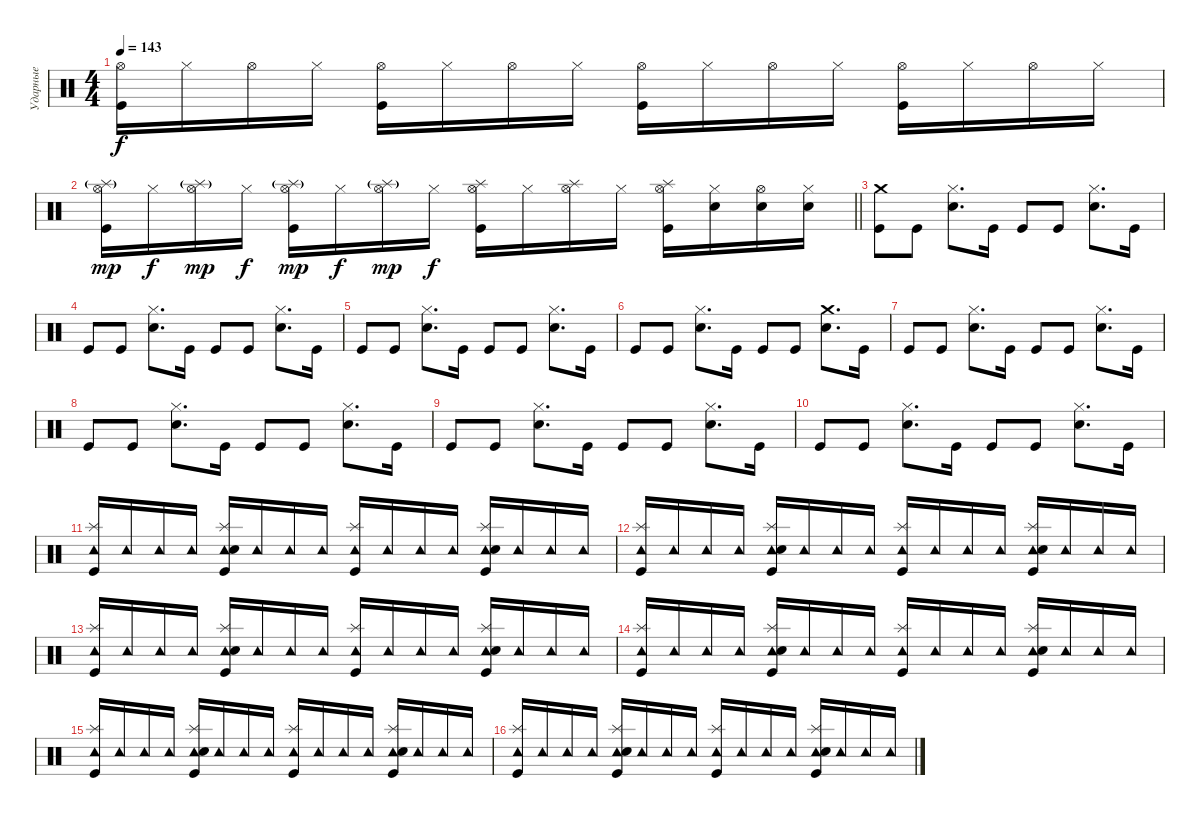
\track ("Ударные" "Ударные") {instrument percussion}
\staff {score}
\articulation defaults
\ts (4 4)
\tempo 143
\clef neutral
\ks c
("Hi-Hat (open)" "Kick (hit)").16{dy f} "Hi-Hat (closed)".16 "Hi-Hat (open)".16 "Hi-Hat (closed)".16 ("Hi-Hat (open)" "Kick (hit)").16 "Hi-Hat (closed)".16 "Hi-Hat (open)".16 "Hi-Hat (closed)".16 ("Hi-Hat (open)" "Kick (hit)").16 "Hi-Hat (closed)".16 "Hi-Hat (open)".16 "Hi-Hat (closed)".16 ("Hi-Hat (open)" "Kick (hit)").16 "Hi-Hat (closed)".16 "Hi-Hat (open)".16 "Hi-Hat (closed)".16 |
\barLineRight lightlight
("Hi-Hat (open)" "Splash (hit)"{g} "Kick (hit)").16{dy mp} "Hi-Hat (closed)".16{dy f} ("Hi-Hat (open)" "Splash (hit)"{g}).16{dy mp} "Hi-Hat (closed)".16{dy f} ("Hi-Hat (open)" "Splash (hit)"{g} "Kick (hit)").16{dy mp} "Hi-Hat (closed)".16{dy f} ("Hi-Hat (open)" "Splash (hit)"{g}).16{dy mp} "Hi-Hat (closed)".16{dy f} ("Hi-Hat (open)" "Splash (hit)" "Kick (hit)").16 "Hi-Hat (closed)".16 ("Hi-Hat (open)" "Splash (hit)").16 "Hi-Hat (closed)".16 ("Hi-Hat (open)" "Splash (hit)" "Kick (hit)").16 ("Hi-Hat (closed)" "Snare (hit) 2").16 ("Hi-Hat (open)" "Snare (hit) 2").16 ("Hi-Hat (closed)" "Snare (hit) 2").16 |
("Crash medium (hit)" "Kick (hit)").8 "Kick (hit)".8 ("Hi-Hat (closed)" "Electric Snare (hit)").8{d} "Kick (hit)".16 "Kick (hit)".8 "Kick (hit)".8 ("Hi-Hat (closed)" "Electric Snare (hit)").8{d} "Kick (hit)".16 |
"Kick (hit)".8 "Kick (hit)".8 ("Hi-Hat (closed)" "Electric Snare (hit)").8{d} "Kick (hit)".16 "Kick (hit)".8 "Kick (hit)".8 ("Hi-Hat (closed)" "Electric Snare (hit)").8{d} "Kick (hit)".16 |
"Kick (hit)".8 "Kick (hit)".8 ("Hi-Hat (closed)" "Electric Snare (hit)").8{d} "Kick (hit)".16 "Kick (hit)".8 "Kick (hit)".8 ("Hi-Hat (closed)" "Electric Snare (hit)").8{d} "Kick (hit)".16 |
"Kick (hit)".8 "Kick (hit)".8 ("Hi-Hat (closed)" "Electric Snare (hit)").8{d} "Kick (hit)".16 "Kick (hit)".8 "Kick (hit)".8 ("Crash medium (hit)" "Electric Snare (hit)").8{d} "Kick (hit)".16 |
"Kick (hit)".8 "Kick (hit)".8 ("Hi-Hat (closed)" "Electric Snare (hit)").8{d} "Kick (hit)".16 "Kick (hit)".8 "Kick (hit)".8 ("Hi-Hat (closed)" "Electric Snare (hit)").8{d} "Kick (hit)".16 |
"Kick (hit)".8 "Kick (hit)".8 ("Hi-Hat (closed)" "Electric Snare (hit)").8{d} "Kick (hit)".16 "Kick (hit)".8 "Kick (hit)".8 ("Hi-Hat (closed)" "Electric Snare (hit)").8{d} "Kick (hit)".16 |
"Kick (hit)".8 "Kick (hit)".8 ("Hi-Hat (closed)" "Electric Snare (hit)").8{d} "Kick (hit)".16 "Kick (hit)".8 "Kick (hit)".8 ("Hi-Hat (closed)" "Electric Snare (hit)").8{d} "Kick (hit)".16 |
"Kick (hit)".8 "Kick (hit)".8 ("Hi-Hat (closed)" "Electric Snare (hit)").8{d} "Kick (hit)".16 "Kick (hit)".8 "Kick (hit)".8 ("Hi-Hat (closed)" "Electric Snare (hit)").8{d} "Kick (hit)".16 |
("Tambourine (hit)" "Splash (hit)" "Kick (hit)").16 "Tambourine (hit)".16 "Tambourine (hit)".16 "Tambourine (hit)".16 ("Tambourine (hit)" "Splash (hit)" "Electric Snare (hit)" "Kick (hit)").16 "Tambourine (hit)".16 "Tambourine (hit)".16 "Tambourine (hit)".16 ("Tambourine (hit)" "Splash (hit)" "Kick (hit)").16 "Tambourine (hit)".16 "Tambourine (hit)".16 "Tambourine (hit)".16 ("Tambourine (hit)" "Splash (hit)" "Electric Snare (hit)" "Kick (hit)").16 "Tambourine (hit)".16 "Tambourine (hit)".16 "Tambourine (hit)".16 |
("Tambourine (hit)" "Splash (hit)" "Kick (hit)").16 "Tambourine (hit)".16 "Tambourine (hit)".16 "Tambourine (hit)".16 ("Tambourine (hit)" "Splash (hit)" "Electric Snare (hit)" "Kick (hit)").16 "Tambourine (hit)".16 "Tambourine (hit)".16 "Tambourine (hit)".16 ("Tambourine (hit)" "Splash (hit)" "Kick (hit)").16 "Tambourine (hit)".16 "Tambourine (hit)".16 "Tambourine (hit)".16 ("Tambourine (hit)" "Splash (hit)" "Electric Snare (hit)" "Kick (hit)").16 "Tambourine (hit)".16 "Tambourine (hit)".16 "Tambourine (hit)".16 |
("Tambourine (hit)" "Splash (hit)" "Kick (hit)").16 "Tambourine (hit)".16 "Tambourine (hit)".16 "Tambourine (hit)".16 ("Tambourine (hit)" "Splash (hit)" "Electric Snare (hit)" "Kick (hit)").16 "Tambourine (hit)".16 "Tambourine (hit)".16 "Tambourine (hit)".16 ("Tambourine (hit)" "Splash (hit)" "Kick (hit)").16 "Tambourine (hit)".16 "Tambourine (hit)".16 "Tambourine (hit)".16 ("Tambourine (hit)" "Splash (hit)" "Electric Snare (hit)" "Kick (hit)").16 "Tambourine (hit)".16 "Tambourine (hit)".16 "Tambourine (hit)".16 |
("Tambourine (hit)" "Splash (hit)" "Kick (hit)").16 "Tambourine (hit)".16 "Tambourine (hit)".16 "Tambourine (hit)".16 ("Tambourine (hit)" "Splash (hit)" "Electric Snare (hit)" "Kick (hit)").16 "Tambourine (hit)".16 "Tambourine (hit)".16 "Tambourine (hit)".16 ("Tambourine (hit)" "Splash (hit)" "Kick (hit)").16 "Tambourine (hit)".16 "Tambourine (hit)".16 "Tambourine (hit)".16 ("Tambourine (hit)" "Splash (hit)" "Electric Snare (hit)" "Kick (hit)").16 "Tambourine (hit)".16 "Tambourine (hit)".16 "Tambourine (hit)".16 |
("Tambourine (hit)" "Splash (hit)" "Kick (hit)").16 "Tambourine (hit)".16 "Tambourine (hit)".16 "Tambourine (hit)".16 ("Tambourine (hit)" "Splash (hit)" "Electric Snare (hit)" "Kick (hit)").16 "Tambourine (hit)".16 "Tambourine (hit)".16 "Tambourine (hit)".16 ("Tambourine (hit)" "Splash (hit)" "Kick (hit)").16 "Tambourine (hit)".16 "Tambourine (hit)".16 "Tambourine (hit)".16 ("Tambourine (hit)" "Splash (hit)" "Electric Snare (hit)" "Kick (hit)").16 "Tambourine (hit)".16 "Tambourine (hit)".16 "Tambourine (hit)".16 |
("Tambourine (hit)" "Splash (hit)" "Kick (hit)").16 "Tambourine (hit)".16 "Tambourine (hit)".16 "Tambourine (hit)".16 ("Tambourine (hit)" "Splash (hit)" "Electric Snare (hit)" "Kick (hit)").16 "Tambourine (hit)".16 "Tambourine (hit)".16 "Tambourine (hit)".16 ("Tambourine (hit)" "Splash (hit)" "Kick (hit)").16 "Tambourine (hit)".16 "Tambourine (hit)".16 "Tambourine (hit)".16 ("Tambourine (hit)" "Splash (hit)" "Electric Snare (hit)" "Kick (hit)").16 "Tambourine (hit)".16 "Tambourine (hit)".16 "Tambourine (hit)".16
